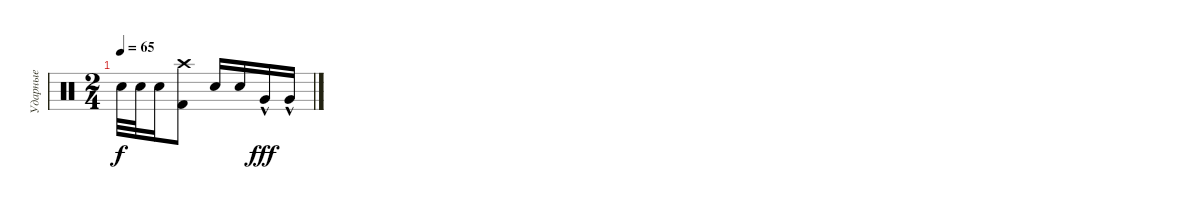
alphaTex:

\track ("Ударные" "Ударные") {instrument percussion}
\staff {score}
\articulation defaults
\ts (2 4)
\tempo 65
\clef neutral
\ks c "Snare (hit) 2".32{dy f} "Snare (hit) 2".32 "Snare (hit) 2".16
("Kick (hit) 2" "Crash high (hit)").8 "Snare (hit) 2".16 "Snare (hit) 2".16 "Very Low Tom (hit)"{hac}.16{dy fff} "Very Low Tom (hit)"{hac}.16
